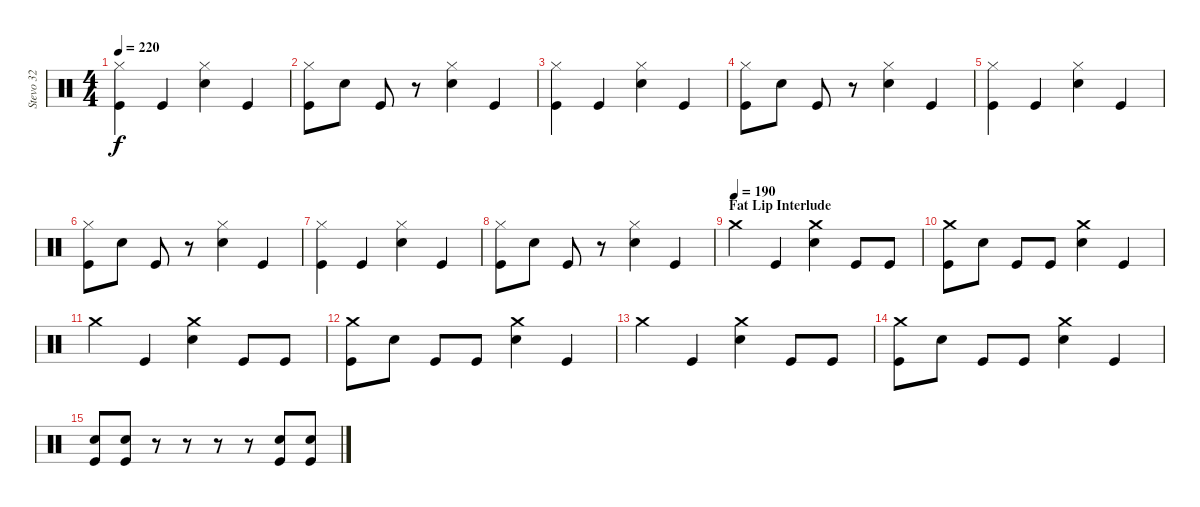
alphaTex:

\track ("Stevo 32" "Stevo 32") {instrument percussion}
\staff {score}
\articulation defaults
\ts (4 4)
\tempo 220
\clef neutral
\ks c
("Hi-Hat (closed)" "Kick (hit)").4{dy f} "Kick (hit)".4 ("Hi-Hat (closed)" "Electric Snare (hit)").4 "Kick (hit)".4 |
("Hi-Hat (closed)" "Kick (hit)").8 "Electric Snare (hit)".8 "Kick (hit)".8 r.8 ("Hi-Hat (closed)" "Electric Snare (hit)").4 "Kick (hit)".4 |
("Hi-Hat (closed)" "Kick (hit)").4 "Kick (hit)".4 ("Hi-Hat (closed)" "Electric Snare (hit)").4 "Kick (hit)".4 |
("Hi-Hat (closed)" "Kick (hit)").8 "Electric Snare (hit)".8 "Kick (hit)".8 r.8 ("Hi-Hat (closed)" "Electric Snare (hit)").4 "Kick (hit)".4 |
("Hi-Hat (closed)" "Kick (hit)").4 "Kick (hit)".4 ("Hi-Hat (closed)" "Electric Snare (hit)").4 "Kick (hit)".4 |
("Hi-Hat (closed)" "Kick (hit)").8 "Electric Snare (hit)".8 "Kick (hit)".8 r.8 ("Hi-Hat (closed)" "Electric Snare (hit)").4 "Kick (hit)".4 |
("Hi-Hat (closed)" "Kick (hit)").4 "Kick (hit)".4 ("Hi-Hat (closed)" "Electric Snare (hit)").4 "Kick (hit)".4 |
("Hi-Hat (closed)" "Kick (hit)").8 "Electric Snare (hit)".8 "Kick (hit)".8 r.8 ("Hi-Hat (closed)" "Electric Snare (hit)").4 "Kick (hit)".4 |
\section ("" "Fat Lip Interlude")
\tempo (190)
"Crash medium (hit)".4 "Kick (hit)".4 ("Crash medium (hit)" "Electric Snare (hit)").4 "Kick (hit)".8 "Kick (hit)".8 |
("Crash medium (hit)" "Kick (hit)").8 "Electric Snare (hit)".8 "Kick (hit)".8 "Kick (hit)".8 ("Crash medium (hit)" "Electric Snare (hit)").4 "Kick (hit)".4 |
"Crash medium (hit)".4 "Kick (hit)".4 ("Crash medium (hit)" "Electric Snare (hit)").4 "Kick (hit)".8 "Kick (hit)".8 |
("Crash medium (hit)" "Kick (hit)").8 "Electric Snare (hit)".8 "Kick (hit)".8 "Kick (hit)".8 ("Crash medium (hit)" "Electric Snare (hit)").4 "Kick (hit)".4 |
"Crash medium (hit)".4 "Kick (hit)".4 ("Crash medium (hit)" "Electric Snare (hit)").4 "Kick (hit)".8 "Kick (hit)".8 |
("Crash medium (hit)" "Kick (hit)").8 "Electric Snare (hit)".8 "Kick (hit)".8 "Kick (hit)".8 ("Crash medium (hit)" "Electric Snare (hit)").4 "Kick (hit)".4 |
("Electric Snare (hit)" "Kick (hit)").8 ("Electric Snare (hit)" "Kick (hit)").8 r.8 r.8 r.8 r.8 ("Electric Snare (hit)" "Kick (hit)").8 ("Electric Snare (hit)" "Kick (hit)").8
